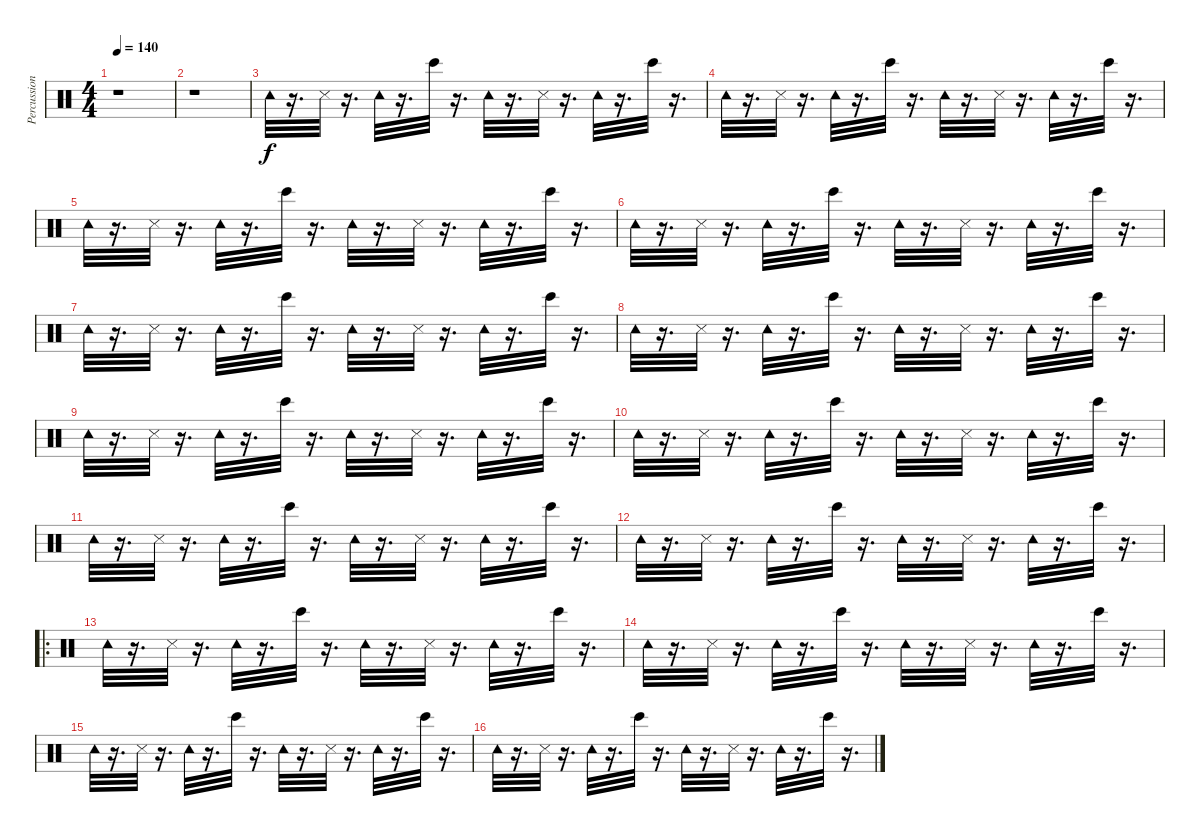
\track ("Percussion" "Percussion") {instrument percussion}
\staff {score}
\articulation defaults
\ts (4 4)
\tempo 140
\clef neutral
\ks c
r.1{dy f} |
r.1 |
"Tambourine (hit)".32 r.16{d} "Metronome (hit)".32 r.16{d} "Tambourine (hit)".32 r.16{d} "Bongo High (hit)".32 r.16{d} "Tambourine (hit)".32 r.16{d} "Metronome (hit)".32 r.16{d} "Tambourine (hit)".32 r.16{d} "Bongo High (hit)".32 r.16{d} |
"Tambourine (hit)".32 r.16{d} "Metronome (hit)".32 r.16{d} "Tambourine (hit)".32 r.16{d} "Bongo High (hit)".32 r.16{d} "Tambourine (hit)".32 r.16{d} "Metronome (hit)".32 r.16{d} "Tambourine (hit)".32 r.16{d} "Bongo High (hit)".32 r.16{d} |
"Tambourine (hit)".32 r.16{d} "Metronome (hit)".32 r.16{d} "Tambourine (hit)".32 r.16{d} "Bongo High (hit)".32 r.16{d} "Tambourine (hit)".32 r.16{d} "Metronome (hit)".32 r.16{d} "Tambourine (hit)".32 r.16{d} "Bongo High (hit)".32 r.16{d} |
"Tambourine (hit)".32 r.16{d} "Metronome (hit)".32 r.16{d} "Tambourine (hit)".32 r.16{d} "Bongo High (hit)".32 r.16{d} "Tambourine (hit)".32 r.16{d} "Metronome (hit)".32 r.16{d} "Tambourine (hit)".32 r.16{d} "Bongo High (hit)".32 r.16{d} |
"Tambourine (hit)".32 r.16{d} "Metronome (hit)".32 r.16{d} "Tambourine (hit)".32 r.16{d} "Bongo High (hit)".32 r.16{d} "Tambourine (hit)".32 r.16{d} "Metronome (hit)".32 r.16{d} "Tambourine (hit)".32 r.16{d} "Bongo High (hit)".32 r.16{d} |
"Tambourine (hit)".32 r.16{d} "Metronome (hit)".32 r.16{d} "Tambourine (hit)".32 r.16{d} "Bongo High (hit)".32 r.16{d} "Tambourine (hit)".32 r.16{d} "Metronome (hit)".32 r.16{d} "Tambourine (hit)".32 r.16{d} "Bongo High (hit)".32 r.16{d} |
"Tambourine (hit)".32 r.16{d} "Metronome (hit)".32 r.16{d} "Tambourine (hit)".32 r.16{d} "Bongo High (hit)".32 r.16{d} "Tambourine (hit)".32 r.16{d} "Metronome (hit)".32 r.16{d} "Tambourine (hit)".32 r.16{d} "Bongo High (hit)".32 r.16{d} |
"Tambourine (hit)".32 r.16{d} "Metronome (hit)".32 r.16{d} "Tambourine (hit)".32 r.16{d} "Bongo High (hit)".32 r.16{d} "Tambourine (hit)".32 r.16{d} "Metronome (hit)".32 r.16{d} "Tambourine (hit)".32 r.16{d} "Bongo High (hit)".32 r.16{d} |
"Tambourine (hit)".32 r.16{d} "Metronome (hit)".32 r.16{d} "Tambourine (hit)".32 r.16{d} "Bongo High (hit)".32 r.16{d} "Tambourine (hit)".32 r.16{d} "Metronome (hit)".32 r.16{d} "Tambourine (hit)".32 r.16{d} "Bongo High (hit)".32 r.16{d} |
"Tambourine (hit)".32 r.16{d} "Metronome (hit)".32 r.16{d} "Tambourine (hit)".32 r.16{d} "Bongo High (hit)".32 r.16{d} "Tambourine (hit)".32 r.16{d} "Metronome (hit)".32 r.16{d} "Tambourine (hit)".32 r.16{d} "Bongo High (hit)".32 r.16{d} |
\ro "Tambourine (hit)".32
r.16{d} "Metronome (hit)".32 r.16{d} "Tambourine (hit)".32 r.16{d} "Bongo High (hit)".32 r.16{d} "Tambourine (hit)".32 r.16{d} "Metronome (hit)".32 r.16{d} "Tambourine (hit)".32 r.16{d} "Bongo High (hit)".32 r.16{d} |
"Tambourine (hit)".32 r.16{d} "Metronome (hit)".32 r.16{d} "Tambourine (hit)".32 r.16{d} "Bongo High (hit)".32 r.16{d} "Tambourine (hit)".32 r.16{d} "Metronome (hit)".32 r.16{d} "Tambourine (hit)".32 r.16{d} "Bongo High (hit)".32 r.16{d} |
"Tambourine (hit)".32 r.16{d} "Metronome (hit)".32 r.16{d} "Tambourine (hit)".32 r.16{d} "Bongo High (hit)".32 r.16{d} "Tambourine (hit)".32 r.16{d} "Metronome (hit)".32 r.16{d} "Tambourine (hit)".32 r.16{d} "Bongo High (hit)".32 r.16{d} |
"Tambourine (hit)".32 r.16{d} "Metronome (hit)".32 r.16{d} "Tambourine (hit)".32 r.16{d} "Bongo High (hit)".32 r.16{d} "Tambourine (hit)".32 r.16{d} "Metronome (hit)".32 r.16{d} "Tambourine (hit)".32 r.16{d} "Bongo High (hit)".32 r.16{d}
